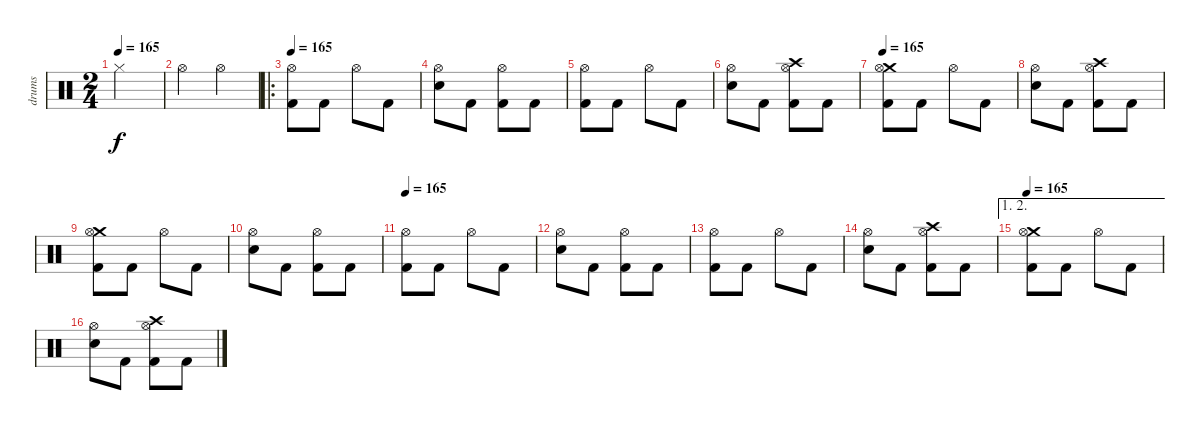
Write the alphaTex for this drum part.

\track ("drums" "drums") {instrument percussion}
\staff {score}
\articulation defaults
\ts (2 4)
\tempo 165
\clef neutral
\ks c "Hi-Hat (closed)".2{dy f}
|
"Hi-Hat (open)".4 "Hi-Hat (open)".4 |
\ro
\tempo 165
("Hi-Hat (open)" "Kick (hit) 2").8 "Kick (hit) 2".8 "Hi-Hat (open)".8 "Kick (hit) 2".8 |
("Hi-Hat (open)" "Electric Snare (hit)").8 "Kick (hit) 2".8 ("Hi-Hat (open)" "Kick (hit) 2").8 "Kick (hit) 2".8 |
("Hi-Hat (open)" "Kick (hit) 2").8 "Kick (hit) 2".8 "Hi-Hat (open)".8 "Kick (hit) 2".8 |
("Hi-Hat (open)" "Electric Snare (hit)").8 "Kick (hit) 2".8 ("Crash high (hit)" "Hi-Hat (open)" "Kick (hit) 2").8 "Kick (hit) 2".8 |
\tempo 165
("Crash medium (hit)" "Hi-Hat (open)" "Kick (hit) 2").8 "Kick (hit) 2".8 "Hi-Hat (open)".8 "Kick (hit) 2".8 |
("Hi-Hat (open)" "Electric Snare (hit)").8 "Kick (hit) 2".8 ("Crash high (hit)" "Hi-Hat (open)" "Kick (hit) 2").8 "Kick (hit) 2".8 |
("Crash medium (hit)" "Hi-Hat (open)" "Kick (hit) 2").8 "Kick (hit) 2".8 "Hi-Hat (open)".8 "Kick (hit) 2".8 |
("Hi-Hat (open)" "Electric Snare (hit)").8 "Kick (hit) 2".8 ("Hi-Hat (open)" "Kick (hit) 2").8 "Kick (hit) 2".8 |
\tempo 165
("Hi-Hat (open)" "Kick (hit) 2").8 "Kick (hit) 2".8 "Hi-Hat (open)".8 "Kick (hit) 2".8 |
("Hi-Hat (open)" "Electric Snare (hit)").8 "Kick (hit) 2".8 ("Hi-Hat (open)" "Kick (hit) 2").8 "Kick (hit) 2".8 |
("Hi-Hat (open)" "Kick (hit) 2").8 "Kick (hit) 2".8 "Hi-Hat (open)".8 "Kick (hit) 2".8 |
("Hi-Hat (open)" "Electric Snare (hit)").8 "Kick (hit) 2".8 ("Crash high (hit)" "Hi-Hat (open)" "Kick (hit) 2").8 "Kick (hit) 2".8 |
\ae (1 2)
\tempo 165
("Crash medium (hit)" "Hi-Hat (open)" "Kick (hit) 2").8 "Kick (hit) 2".8 "Hi-Hat (open)".8 "Kick (hit) 2".8 |
("Hi-Hat (open)" "Electric Snare (hit)").8 "Kick (hit) 2".8 ("Crash high (hit)" "Hi-Hat (open)" "Kick (hit) 2").8 "Kick (hit) 2".8
